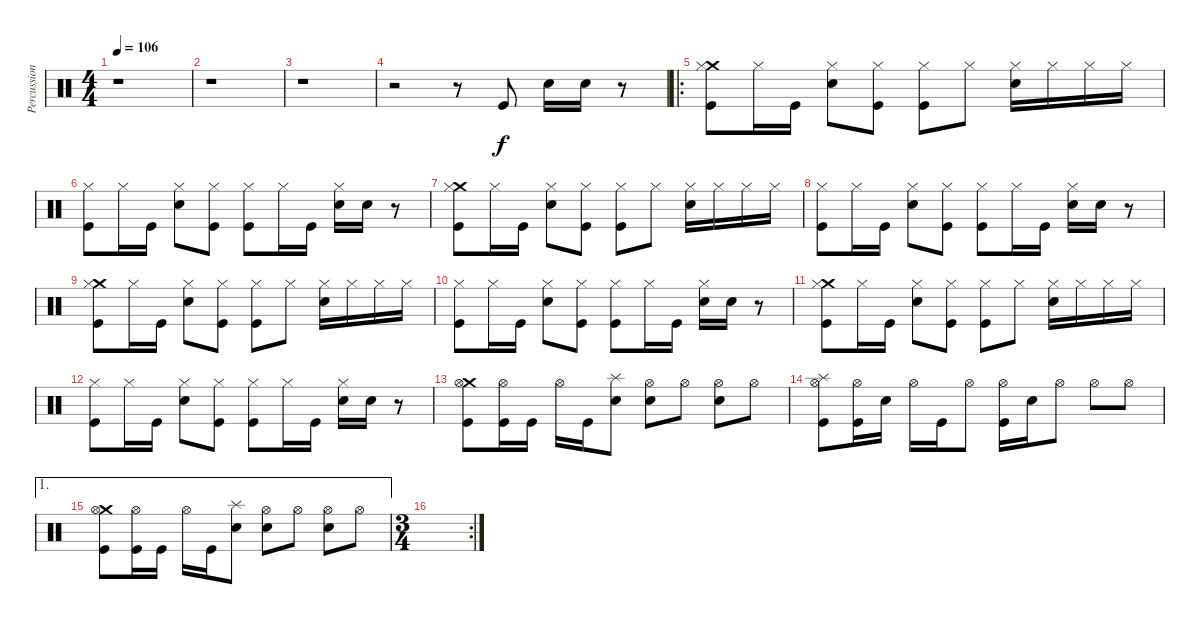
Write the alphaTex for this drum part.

\track ("Percussions" "Percussion") {instrument percussion}
\staff {score}
\articulation defaults
\ts (4 4)
\tempo 106
\clef neutral
\ks c
r.1{dy f} |
r.1 |
r.1 |
r.2 r.8 "Kick (hit)".8 "Electric Snare (hit)".16 "Electric Snare (hit)".16 r.8 |
\ro
("Crash medium (hit)" "Hi-Hat (closed)" "Kick (hit)").8 "Hi-Hat (closed)".16 "Kick (hit)".16 ("Hi-Hat (closed)" "Electric Snare (hit)").8 ("Hi-Hat (closed)" "Kick (hit)").8 ("Hi-Hat (closed)" "Kick (hit)").8 "Hi-Hat (closed)".8 ("Hi-Hat (closed)" "Electric Snare (hit)").16 "Hi-Hat (closed)".16 "Hi-Hat (closed)".16 "Hi-Hat (closed)".16 |
("Hi-Hat (closed)" "Kick (hit)").8 "Hi-Hat (closed)".16 "Kick (hit)".16 ("Hi-Hat (closed)" "Electric Snare (hit)").8 ("Hi-Hat (closed)" "Kick (hit)").8 ("Hi-Hat (closed)" "Kick (hit)").8 "Hi-Hat (closed)".16 "Kick (hit)".16 ("Hi-Hat (closed)" "Electric Snare (hit)").16 "Electric Snare (hit)".16 r.8 |
("Crash medium (hit)" "Hi-Hat (closed)" "Kick (hit)").8 "Hi-Hat (closed)".16 "Kick (hit)".16 ("Hi-Hat (closed)" "Electric Snare (hit)").8 ("Hi-Hat (closed)" "Kick (hit)").8 ("Hi-Hat (closed)" "Kick (hit)").8 "Hi-Hat (closed)".8 ("Hi-Hat (closed)" "Electric Snare (hit)").16 "Hi-Hat (closed)".16 "Hi-Hat (closed)".16 "Hi-Hat (closed)".16 |
("Hi-Hat (closed)" "Kick (hit)").8 "Hi-Hat (closed)".16 "Kick (hit)".16 ("Hi-Hat (closed)" "Electric Snare (hit)").8 ("Hi-Hat (closed)" "Kick (hit)").8 ("Hi-Hat (closed)" "Kick (hit)").8 "Hi-Hat (closed)".16 "Kick (hit)".16 ("Hi-Hat (closed)" "Electric Snare (hit)").16 "Electric Snare (hit)".16 r.8 |
("Crash medium (hit)" "Hi-Hat (closed)" "Kick (hit)").8 "Hi-Hat (closed)".16 "Kick (hit)".16 ("Hi-Hat (closed)" "Electric Snare (hit)").8 ("Hi-Hat (closed)" "Kick (hit)").8 ("Hi-Hat (closed)" "Kick (hit)").8 "Hi-Hat (closed)".8 ("Hi-Hat (closed)" "Electric Snare (hit)").16 "Hi-Hat (closed)".16 "Hi-Hat (closed)".16 "Hi-Hat (closed)".16 |
("Hi-Hat (closed)" "Kick (hit)").8 "Hi-Hat (closed)".16 "Kick (hit)".16 ("Hi-Hat (closed)" "Electric Snare (hit)").8 ("Hi-Hat (closed)" "Kick (hit)").8 ("Hi-Hat (closed)" "Kick (hit)").8 "Hi-Hat (closed)".16 "Kick (hit)".16 ("Hi-Hat (closed)" "Electric Snare (hit)").16 "Electric Snare (hit)".16 r.8 |
("Crash medium (hit)" "Hi-Hat (closed)" "Kick (hit)").8 "Hi-Hat (closed)".16 "Kick (hit)".16 ("Hi-Hat (closed)" "Electric Snare (hit)").8 ("Hi-Hat (closed)" "Kick (hit)").8 ("Hi-Hat (closed)" "Kick (hit)").8 "Hi-Hat (closed)".8 ("Hi-Hat (closed)" "Electric Snare (hit)").16 "Hi-Hat (closed)".16 "Hi-Hat (closed)".16 "Hi-Hat (closed)".16 |
("Hi-Hat (closed)" "Kick (hit)").8 "Hi-Hat (closed)".16 "Kick (hit)".16 ("Hi-Hat (closed)" "Electric Snare (hit)").8 ("Hi-Hat (closed)" "Kick (hit)").8 ("Hi-Hat (closed)" "Kick (hit)").8 "Hi-Hat (closed)".16 "Kick (hit)".16 ("Hi-Hat (closed)" "Electric Snare (hit)").16 "Electric Snare (hit)".16 r.8 |
("Crash medium (hit)" "Hi-Hat (open)" "Kick (hit)").8 ("Hi-Hat (open)" "Kick (hit)").16 "Kick (hit)".16 "Hi-Hat (open)".16 "Kick (hit)".16 ("Splash (hit)" "Electric Snare (hit)").8 ("Hi-Hat (open)" "Electric Snare (hit)").8 "Hi-Hat (open)".8 ("Hi-Hat (open)" "Electric Snare (hit)").8 "Hi-Hat (open)".8 |
("Splash (hit)" "Hi-Hat (open)" "Kick (hit)").8 ("Hi-Hat (open)" "Kick (hit)").16 "Electric Snare (hit)".16 "Hi-Hat (open)".16 "Kick (hit)".16 "Hi-Hat (open)".8 ("Hi-Hat (open)" "Kick (hit)").16 "Electric Snare (hit)".16 "Hi-Hat (open)".8 "Hi-Hat (open)".8 "Hi-Hat (open)".8 |
\ae 1
("Crash medium (hit)" "Hi-Hat (open)" "Kick (hit)").8 ("Hi-Hat (open)" "Kick (hit)").16 "Kick (hit)".16 "Hi-Hat (open)".16 "Kick (hit)".16 ("Splash (hit)" "Electric Snare (hit)").8 ("Hi-Hat (open)" "Electric Snare (hit)").8 "Hi-Hat (open)".8 ("Hi-Hat (open)" "Electric Snare (hit)").8 "Hi-Hat (open)".8 |
\rc 2
\ts (3 4)
